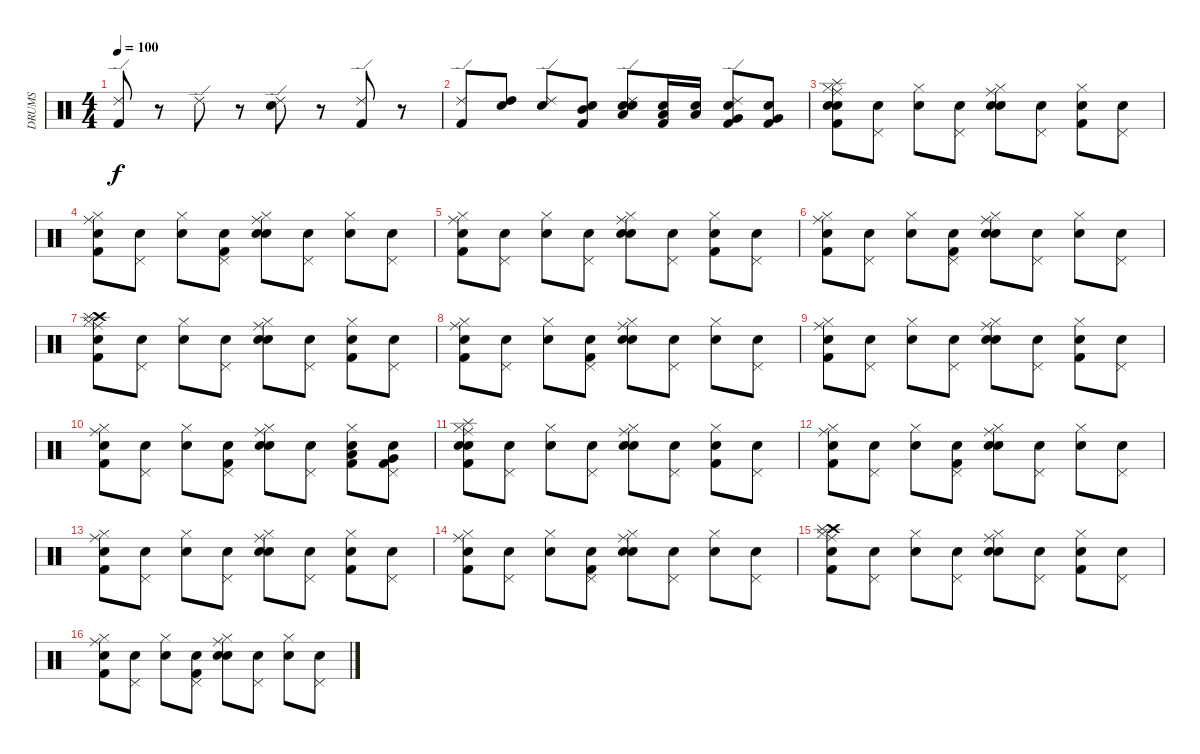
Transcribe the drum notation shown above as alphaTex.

\track ("DRUMS" "DRUMS") {instrument percussion}
\staff {score}
\articulation defaults
\ts (4 4)
\tempo 100
\clef neutral
\ks c
("Kick (hit) 2" "Ride (edge) 2").8{dy f} r.8 "Ride (edge) 2".8 r.8 ("Snare (hit) 2" "Ride (edge) 2").8 r.8 ("Kick (hit) 2" "Ride (edge) 2").8 r.8 |
("Kick (hit) 2" "Ride (edge) 2").8 ("Snare (hit)" "High Tom (hit)").8 ("Snare (hit)" "Ride (edge) 2").8 ("Snare (hit)" "Mid Tom (hit)" "Kick (hit) 2").8 ("Snare (hit)" "Low Tom (hit)" "Snare (hit) 2" "Ride (edge) 2").8 ("Snare (hit)" "Low Tom (hit)" "Kick (hit) 2").16 ("Snare (hit)" "Low Tom (hit)").16 ("Snare (hit)" "Very Low Tom (hit)" "Kick (hit) 2" "Ride (edge) 2").8 ("Snare (hit)" "Very Low Tom (hit)" "Kick (hit) 2").8 |
("Snare (hit)" "Ride (middle)" "Hi-Hat (closed)" "Kick (hit) 2" "Snare (hit) 2" "Splash (hit)").8 ("Snare (hit)" "Pedal Hi-Hat (hit)").8 ("Snare (hit)" "Hi-Hat (closed)").8 ("Snare (hit)" "Pedal Hi-Hat (hit)").8 ("Snare (hit)" "Ride (middle)" "Hi-Hat (closed)" "Snare (hit) 2").8 ("Snare (hit)" "Pedal Hi-Hat (hit)").8 ("Snare (hit)" "Hi-Hat (closed)" "Kick (hit) 2").8 ("Snare (hit)" "Pedal Hi-Hat (hit)").8 |
("Snare (hit)" "Ride (middle)" "Hi-Hat (closed)" "Kick (hit) 2").8 ("Snare (hit)" "Pedal Hi-Hat (hit)").8 ("Snare (hit)" "Hi-Hat (closed)").8 ("Snare (hit)" "Pedal Hi-Hat (hit)" "Kick (hit) 2").8 ("Snare (hit)" "Ride (middle)" "Hi-Hat (closed)" "Snare (hit) 2").8 ("Snare (hit)" "Pedal Hi-Hat (hit)").8 ("Snare (hit)" "Hi-Hat (closed)").8 ("Snare (hit)" "Pedal Hi-Hat (hit)").8 |
("Snare (hit)" "Kick (hit) 2" "Ride (middle)" "Hi-Hat (closed)").8 ("Snare (hit)" "Pedal Hi-Hat (hit)").8 ("Snare (hit)" "Hi-Hat (closed)").8 ("Snare (hit)" "Pedal Hi-Hat (hit)").8 ("Snare (hit)" "Ride (middle)" "Hi-Hat (closed)" "Snare (hit) 2").8 ("Snare (hit)" "Pedal Hi-Hat (hit)").8 ("Snare (hit)" "Hi-Hat (closed)" "Kick (hit) 2").8 ("Snare (hit)" "Pedal Hi-Hat (hit)").8 |
("Snare (hit)" "Ride (middle)" "Hi-Hat (closed)" "Kick (hit) 2").8 ("Snare (hit)" "Pedal Hi-Hat (hit)").8 ("Snare (hit)" "Hi-Hat (closed)").8 ("Snare (hit)" "Pedal Hi-Hat (hit)" "Kick (hit) 2").8 ("Snare (hit)" "Ride (middle)" "Hi-Hat (closed)" "Snare (hit) 2").8 ("Snare (hit)" "Pedal Hi-Hat (hit)").8 ("Snare (hit)" "Hi-Hat (closed)").8 ("Snare (hit)" "Pedal Hi-Hat (hit)").8 |
("Snare (hit)" "Hi-Hat (closed)" "Ride (middle)" "Kick (hit) 2" "Crash high (hit)" "Splash (hit)").8 ("Snare (hit)" "Pedal Hi-Hat (hit)").8 ("Snare (hit)" "Hi-Hat (closed)").8 ("Snare (hit)" "Pedal Hi-Hat (hit)").8 ("Snare (hit)" "Ride (middle)" "Hi-Hat (closed)" "Snare (hit) 2").8 ("Snare (hit)" "Pedal Hi-Hat (hit)").8 ("Snare (hit)" "Hi-Hat (closed)" "Kick (hit) 2").8 ("Snare (hit)" "Pedal Hi-Hat (hit)").8 |
("Snare (hit)" "Ride (middle)" "Hi-Hat (closed)" "Kick (hit) 2").8 ("Snare (hit)" "Pedal Hi-Hat (hit)").8 ("Snare (hit)" "Hi-Hat (closed)").8 ("Snare (hit)" "Pedal Hi-Hat (hit)" "Kick (hit) 2").8 ("Snare (hit)" "Ride (middle)" "Hi-Hat (closed)" "Snare (hit) 2").8 ("Snare (hit)" "Pedal Hi-Hat (hit)").8 ("Snare (hit)" "Hi-Hat (closed)").8 ("Snare (hit)" "Pedal Hi-Hat (hit)").8 |
("Snare (hit)" "Kick (hit) 2" "Ride (middle)" "Hi-Hat (closed)").8 ("Snare (hit)" "Pedal Hi-Hat (hit)").8 ("Snare (hit)" "Hi-Hat (closed)").8 ("Snare (hit)" "Pedal Hi-Hat (hit)").8 ("Snare (hit)" "Ride (middle)" "Hi-Hat (closed)" "Snare (hit) 2").8 ("Snare (hit)" "Pedal Hi-Hat (hit)").8 ("Snare (hit)" "Hi-Hat (closed)" "Kick (hit) 2").8 ("Snare (hit)" "Pedal Hi-Hat (hit)").8 |
("Snare (hit)" "Ride (middle)" "Hi-Hat (closed)" "Kick (hit) 2").8 ("Snare (hit)" "Pedal Hi-Hat (hit)").8 ("Snare (hit)" "Hi-Hat (closed)").8 ("Snare (hit)" "Pedal Hi-Hat (hit)" "Kick (hit) 2").8 ("Snare (hit)" "Ride (middle)" "Hi-Hat (closed)" "Snare (hit) 2").8 ("Snare (hit)" "Pedal Hi-Hat (hit)").8 ("Snare (hit)" "Kick (hit) 2" "Low Tom (hit)" "Hi-Hat (closed)").8 ("Snare (hit)" "Very Low Tom (hit)" "Kick (hit) 2" "Pedal Hi-Hat (hit)").8 |
("Snare (hit)" "Ride (middle)" "Hi-Hat (closed)" "Kick (hit) 2" "Snare (hit) 2" "Splash (hit)").8 ("Snare (hit)" "Pedal Hi-Hat (hit)").8 ("Snare (hit)" "Hi-Hat (closed)").8 ("Snare (hit)" "Pedal Hi-Hat (hit)").8 ("Snare (hit)" "Ride (middle)" "Hi-Hat (closed)" "Snare (hit) 2").8 ("Snare (hit)" "Pedal Hi-Hat (hit)").8 ("Snare (hit)" "Hi-Hat (closed)" "Kick (hit) 2").8 ("Snare (hit)" "Pedal Hi-Hat (hit)").8 |
("Snare (hit)" "Ride (middle)" "Hi-Hat (closed)" "Kick (hit) 2").8 ("Snare (hit)" "Pedal Hi-Hat (hit)").8 ("Snare (hit)" "Hi-Hat (closed)").8 ("Snare (hit)" "Pedal Hi-Hat (hit)" "Kick (hit) 2").8 ("Snare (hit)" "Ride (middle)" "Hi-Hat (closed)" "Snare (hit) 2").8 ("Snare (hit)" "Pedal Hi-Hat (hit)").8 ("Snare (hit)" "Hi-Hat (closed)").8 ("Snare (hit)" "Pedal Hi-Hat (hit)").8 |
("Snare (hit)" "Kick (hit) 2" "Ride (middle)" "Hi-Hat (closed)").8 ("Snare (hit)" "Pedal Hi-Hat (hit)").8 ("Snare (hit)" "Hi-Hat (closed)").8 ("Snare (hit)" "Pedal Hi-Hat (hit)").8 ("Snare (hit)" "Ride (middle)" "Hi-Hat (closed)" "Snare (hit) 2").8 ("Snare (hit)" "Pedal Hi-Hat (hit)").8 ("Snare (hit)" "Hi-Hat (closed)" "Kick (hit) 2").8 ("Snare (hit)" "Pedal Hi-Hat (hit)").8 |
("Snare (hit)" "Ride (middle)" "Hi-Hat (closed)" "Kick (hit) 2").8 ("Snare (hit)" "Pedal Hi-Hat (hit)").8 ("Snare (hit)" "Hi-Hat (closed)").8 ("Snare (hit)" "Pedal Hi-Hat (hit)" "Kick (hit) 2").8 ("Snare (hit)" "Ride (middle)" "Hi-Hat (closed)" "Snare (hit) 2").8 ("Snare (hit)" "Pedal Hi-Hat (hit)").8 ("Snare (hit)" "Hi-Hat (closed)").8 ("Snare (hit)" "Pedal Hi-Hat (hit)").8 |
("Snare (hit)" "Hi-Hat (closed)" "Ride (middle)" "Kick (hit) 2" "Crash high (hit)" "Splash (hit)").8 ("Snare (hit)" "Pedal Hi-Hat (hit)").8 ("Snare (hit)" "Hi-Hat (closed)").8 ("Snare (hit)" "Pedal Hi-Hat (hit)").8 ("Snare (hit)" "Ride (middle)" "Hi-Hat (closed)" "Snare (hit) 2").8 ("Snare (hit)" "Pedal Hi-Hat (hit)").8 ("Snare (hit)" "Hi-Hat (closed)" "Kick (hit) 2").8 ("Snare (hit)" "Pedal Hi-Hat (hit)").8 |
("Snare (hit)" "Ride (middle)" "Hi-Hat (closed)" "Kick (hit) 2").8 ("Snare (hit)" "Pedal Hi-Hat (hit)").8 ("Snare (hit)" "Hi-Hat (closed)").8 ("Snare (hit)" "Pedal Hi-Hat (hit)" "Kick (hit) 2").8 ("Snare (hit)" "Ride (middle)" "Hi-Hat (closed)" "Snare (hit) 2").8 ("Snare (hit)" "Pedal Hi-Hat (hit)").8 ("Snare (hit)" "Hi-Hat (closed)").8 ("Snare (hit)" "Pedal Hi-Hat (hit)").8
